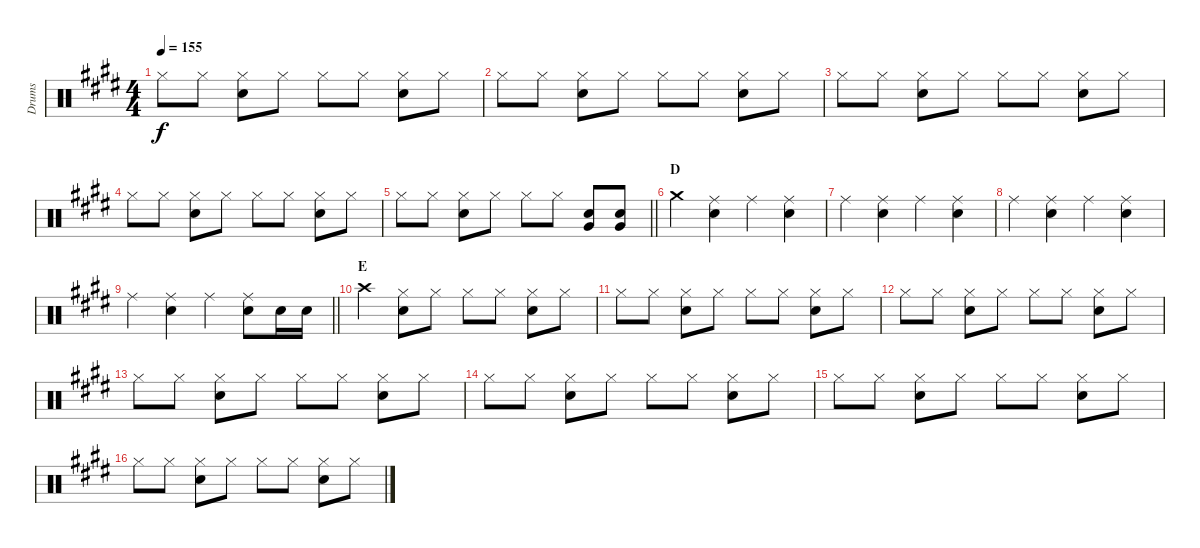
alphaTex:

\track ("Drums" "Drums") {instrument percussion}
\staff {score}
\articulation defaults
\ts (4 4)
\tempo 155
\clef neutral
\ks e "Hi-Hat (closed)".8{dy f} "Hi-Hat (closed)".8
("Hi-Hat (closed)" "Snare (hit) 2").8 "Hi-Hat (closed)".8 "Hi-Hat (closed)".8 "Hi-Hat (closed)".8 ("Hi-Hat (closed)" "Snare (hit) 2").8 "Hi-Hat (closed)".8 |
"Hi-Hat (closed)".8 "Hi-Hat (closed)".8 ("Hi-Hat (closed)" "Snare (hit) 2").8 "Hi-Hat (closed)".8 "Hi-Hat (closed)".8 "Hi-Hat (closed)".8 ("Hi-Hat (closed)" "Snare (hit) 2").8 "Hi-Hat (closed)".8 |
"Hi-Hat (closed)".8 "Hi-Hat (closed)".8 ("Hi-Hat (closed)" "Snare (hit) 2").8 "Hi-Hat (closed)".8 "Hi-Hat (closed)".8 "Hi-Hat (closed)".8 ("Hi-Hat (closed)" "Snare (hit) 2").8 "Hi-Hat (closed)".8 |
"Hi-Hat (closed)".8 "Hi-Hat (closed)".8 ("Hi-Hat (closed)" "Snare (hit) 2").8 "Hi-Hat (closed)".8 "Hi-Hat (closed)".8 "Hi-Hat (closed)".8 ("Hi-Hat (closed)" "Snare (hit) 2").8 "Hi-Hat (closed)".8 |
\barLineRight lightlight "Hi-Hat (closed)".8 "Hi-Hat (closed)".8
("Hi-Hat (closed)" "Snare (hit) 2").8 "Hi-Hat (closed)".8 "Hi-Hat (closed)".8 "Hi-Hat (closed)".8 ("Snare (hit) 2" "Very Low Tom (hit)").8 ("Snare (hit) 2" "Very Low Tom (hit)").8 |
\section ("" "D")
"Crash medium (hit)".4 ("Ride (middle)" "Snare (hit) 2").4 "Ride (middle)".4 ("Ride (middle)" "Snare (hit) 2").4 |
"Ride (middle)".4 ("Ride (middle)" "Snare (hit) 2").4 "Ride (middle)".4 ("Ride (middle)" "Snare (hit) 2").4 |
"Ride (middle)".4 ("Ride (middle)" "Snare (hit) 2").4 "Ride (middle)".4 ("Ride (middle)" "Snare (hit) 2").4 |
\barLineRight lightlight "Ride (middle)".4
("Ride (middle)" "Snare (hit) 2").4 "Ride (middle)".4 ("Ride (middle)" "Snare (hit) 2").8 "Snare (hit) 2".16 "Snare (hit) 2".16 |
\section ("" "E")
"Crash high (hit)".4 ("Hi-Hat (closed)" "Snare (hit) 2").8 "Hi-Hat (closed)".8 "Hi-Hat (closed)".8 "Hi-Hat (closed)".8 ("Hi-Hat (closed)" "Snare (hit) 2").8 "Hi-Hat (closed)".8 |
"Hi-Hat (closed)".8 "Hi-Hat (closed)".8 ("Hi-Hat (closed)" "Snare (hit) 2").8 "Hi-Hat (closed)".8 "Hi-Hat (closed)".8 "Hi-Hat (closed)".8 ("Hi-Hat (closed)" "Snare (hit) 2").8 "Hi-Hat (closed)".8 |
"Hi-Hat (closed)".8 "Hi-Hat (closed)".8 ("Hi-Hat (closed)" "Snare (hit) 2").8 "Hi-Hat (closed)".8 "Hi-Hat (closed)".8 "Hi-Hat (closed)".8 ("Hi-Hat (closed)" "Snare (hit) 2").8 "Hi-Hat (closed)".8 |
"Hi-Hat (closed)".8 "Hi-Hat (closed)".8 ("Hi-Hat (closed)" "Snare (hit) 2").8 "Hi-Hat (closed)".8 "Hi-Hat (closed)".8 "Hi-Hat (closed)".8 ("Hi-Hat (closed)" "Snare (hit) 2").8 "Hi-Hat (closed)".8 |
"Hi-Hat (closed)".8 "Hi-Hat (closed)".8 ("Hi-Hat (closed)" "Snare (hit) 2").8 "Hi-Hat (closed)".8 "Hi-Hat (closed)".8 "Hi-Hat (closed)".8 ("Hi-Hat (closed)" "Snare (hit) 2").8 "Hi-Hat (closed)".8 |
"Hi-Hat (closed)".8 "Hi-Hat (closed)".8 ("Hi-Hat (closed)" "Snare (hit) 2").8 "Hi-Hat (closed)".8 "Hi-Hat (closed)".8 "Hi-Hat (closed)".8 ("Hi-Hat (closed)" "Snare (hit) 2").8 "Hi-Hat (closed)".8 |
"Hi-Hat (closed)".8 "Hi-Hat (closed)".8 ("Hi-Hat (closed)" "Snare (hit) 2").8 "Hi-Hat (closed)".8 "Hi-Hat (closed)".8 "Hi-Hat (closed)".8 ("Hi-Hat (closed)" "Snare (hit) 2").8 "Hi-Hat (closed)".8
